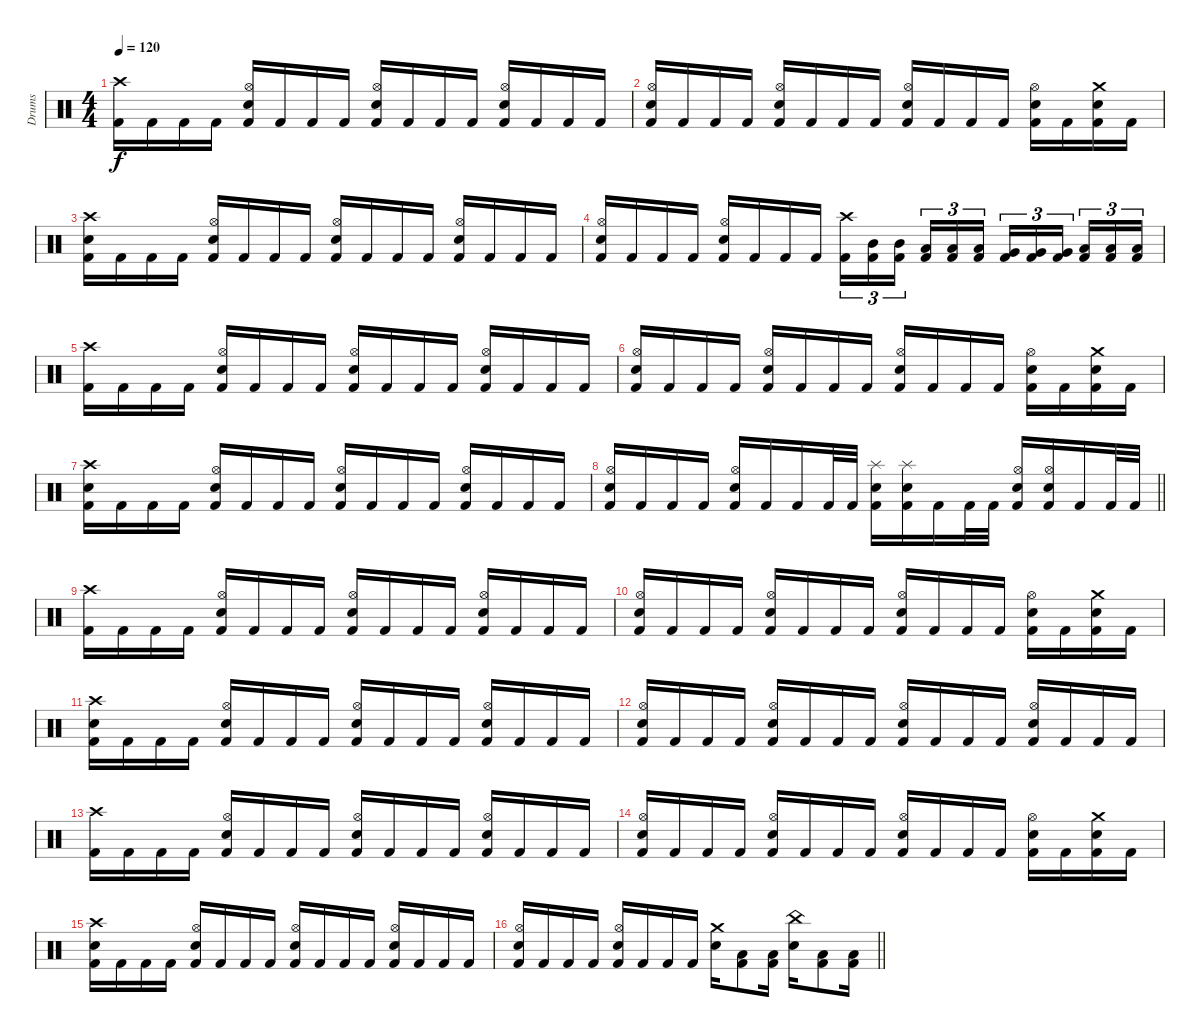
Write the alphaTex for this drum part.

\track ("Drums" "Drums") {instrument percussion}
\staff
\articulation defaults
\ts (4 4)
\section ("" "")
\tempo 120
\clef neutral
\ks c
("Crash high (hit)" "Kick (hit) 2").16{dy f} "Kick (hit) 2".16 "Kick (hit) 2".16 "Kick (hit) 2".16 ("Hi-Hat (open)" "Electric Snare (hit)" "Kick (hit) 2").16 "Kick (hit) 2".16 "Kick (hit) 2".16 "Kick (hit) 2".16 ("Hi-Hat (open)" "Electric Snare (hit)" "Kick (hit) 2").16 "Kick (hit) 2".16 "Kick (hit) 2".16 "Kick (hit) 2".16 ("Hi-Hat (open)" "Electric Snare (hit)" "Kick (hit) 2").16 "Kick (hit) 2".16 "Kick (hit) 2".16 "Kick (hit) 2".16 |
("Hi-Hat (open)" "Electric Snare (hit)" "Kick (hit) 2").16 "Kick (hit) 2".16 "Kick (hit) 2".16 "Kick (hit) 2".16 ("Hi-Hat (open)" "Electric Snare (hit)" "Kick (hit) 2").16 "Kick (hit) 2".16 "Kick (hit) 2".16 "Kick (hit) 2".16 ("Hi-Hat (open)" "Electric Snare (hit)" "Kick (hit) 2").16 "Kick (hit) 2".16 "Kick (hit) 2".16 "Kick (hit) 2".16 ("Hi-Hat (open)" "Electric Snare (hit)" "Kick (hit) 2").16 "Kick (hit) 2".16 ("Crash medium (hit)" "Electric Snare (hit)" "Kick (hit) 2").16 "Kick (hit) 2".16 |
("Crash high (hit)" "Electric Snare (hit)" "Kick (hit) 2").16 "Kick (hit) 2".16 "Kick (hit) 2".16 "Kick (hit) 2".16 ("Hi-Hat (open)" "Electric Snare (hit)" "Kick (hit) 2").16 "Kick (hit) 2".16 "Kick (hit) 2".16 "Kick (hit) 2".16 ("Hi-Hat (open)" "Electric Snare (hit)" "Kick (hit) 2").16 "Kick (hit) 2".16 "Kick (hit) 2".16 "Kick (hit) 2".16 ("Hi-Hat (open)" "Electric Snare (hit)" "Kick (hit) 2").16 "Kick (hit) 2".16 "Kick (hit) 2".16 "Kick (hit) 2".16 |
("Hi-Hat (open)" "Electric Snare (hit)" "Kick (hit) 2").16 "Kick (hit) 2".16 "Kick (hit) 2".16 "Kick (hit) 2".16 ("Hi-Hat (open)" "Electric Snare (hit)" "Kick (hit) 2").16 "Kick (hit) 2".16 "Kick (hit) 2".16 "Kick (hit) 2".16 ("Crash high (hit)" "Kick (hit) 2").16{tu (3 2)} ("Mid Tom (hit)" "Kick (hit) 2").16{tu (3 2)} ("Mid Tom (hit)" "Kick (hit) 2").16{tu (3 2) beam splitsecondary} ("Low Tom (hit)" "Kick (hit) 2").16{tu (3 2)} ("Low Tom (hit)" "Kick (hit) 2").16{tu (3 2)} ("Low Tom (hit)" "Kick (hit) 2").16{tu (3 2)} ("Very Low Tom (hit)" "Kick (hit) 2").16{tu (3 2)} ("Very Low Tom (hit)" "Kick (hit) 2").16{tu (3 2)} ("Very Low Tom (hit)" "Kick (hit) 2").16{tu (3 2) beam splitsecondary} ("Low Floor Tom (hit)" "Kick (hit) 2").16{tu (3 2)} ("Low Floor Tom (hit)" "Kick (hit) 2").16{tu (3 2)} ("Low Floor Tom (hit)" "Kick (hit) 2").16{tu (3 2)} |
("Crash high (hit)" "Kick (hit) 2").16 "Kick (hit) 2".16 "Kick (hit) 2".16 "Kick (hit) 2".16 ("Hi-Hat (open)" "Electric Snare (hit)" "Kick (hit) 2").16 "Kick (hit) 2".16 "Kick (hit) 2".16 "Kick (hit) 2".16 ("Hi-Hat (open)" "Electric Snare (hit)" "Kick (hit) 2").16 "Kick (hit) 2".16 "Kick (hit) 2".16 "Kick (hit) 2".16 ("Hi-Hat (open)" "Electric Snare (hit)" "Kick (hit) 2").16 "Kick (hit) 2".16 "Kick (hit) 2".16 "Kick (hit) 2".16 |
("Hi-Hat (open)" "Electric Snare (hit)" "Kick (hit) 2").16 "Kick (hit) 2".16 "Kick (hit) 2".16 "Kick (hit) 2".16 ("Hi-Hat (open)" "Electric Snare (hit)" "Kick (hit) 2").16 "Kick (hit) 2".16 "Kick (hit) 2".16 "Kick (hit) 2".16 ("Hi-Hat (open)" "Electric Snare (hit)" "Kick (hit) 2").16 "Kick (hit) 2".16 "Kick (hit) 2".16 "Kick (hit) 2".16 ("Hi-Hat (open)" "Electric Snare (hit)" "Kick (hit) 2").16 "Kick (hit) 2".16 ("Crash medium (hit)" "Electric Snare (hit)" "Kick (hit) 2").16 "Kick (hit) 2".16 |
("Crash high (hit)" "Electric Snare (hit)" "Kick (hit) 2").16 "Kick (hit) 2".16 "Kick (hit) 2".16 "Kick (hit) 2".16 ("Hi-Hat (open)" "Electric Snare (hit)" "Kick (hit) 2").16 "Kick (hit) 2".16 "Kick (hit) 2".16 "Kick (hit) 2".16 ("Hi-Hat (open)" "Electric Snare (hit)" "Kick (hit) 2").16 "Kick (hit) 2".16 "Kick (hit) 2".16 "Kick (hit) 2".16 ("Hi-Hat (open)" "Electric Snare (hit)" "Kick (hit) 2").16 "Kick (hit) 2".16 "Kick (hit) 2".16 "Kick (hit) 2".16 |
\barLineRight lightlight
("Hi-Hat (open)" "Electric Snare (hit)" "Kick (hit) 2").16 "Kick (hit) 2".16 "Kick (hit) 2".16 "Kick (hit) 2".16 ("Hi-Hat (open)" "Electric Snare (hit)" "Kick (hit) 2").16 "Kick (hit) 2".16 "Kick (hit) 2".16 "Kick (hit) 2".32 "Kick (hit) 2".32 ("Splash (hit)" "Electric Snare (hit)" "Kick (hit) 2").16 ("Splash (hit)" "Electric Snare (hit)" "Kick (hit) 2").16 "Kick (hit) 2".16 "Kick (hit) 2".32 "Kick (hit) 2".32 ("Hi-Hat (open)" "Electric Snare (hit)" "Kick (hit) 2").16 ("Hi-Hat (open)" "Electric Snare (hit)" "Kick (hit) 2").16 "Kick (hit) 2".16 "Kick (hit) 2".32 "Kick (hit) 2".32 |
\section ("" "")
("Crash high (hit)" "Kick (hit) 2").16 "Kick (hit) 2".16 "Kick (hit) 2".16 "Kick (hit) 2".16 ("Hi-Hat (open)" "Electric Snare (hit)" "Kick (hit) 2").16 "Kick (hit) 2".16 "Kick (hit) 2".16 "Kick (hit) 2".16 ("Hi-Hat (open)" "Electric Snare (hit)" "Kick (hit) 2").16 "Kick (hit) 2".16 "Kick (hit) 2".16 "Kick (hit) 2".16 ("Hi-Hat (open)" "Electric Snare (hit)" "Kick (hit) 2").16 "Kick (hit) 2".16 "Kick (hit) 2".16 "Kick (hit) 2".16 |
("Hi-Hat (open)" "Electric Snare (hit)" "Kick (hit) 2").16 "Kick (hit) 2".16 "Kick (hit) 2".16 "Kick (hit) 2".16 ("Hi-Hat (open)" "Electric Snare (hit)" "Kick (hit) 2").16 "Kick (hit) 2".16 "Kick (hit) 2".16 "Kick (hit) 2".16 ("Hi-Hat (open)" "Electric Snare (hit)" "Kick (hit) 2").16 "Kick (hit) 2".16 "Kick (hit) 2".16 "Kick (hit) 2".16 ("Hi-Hat (open)" "Electric Snare (hit)" "Kick (hit) 2").16 "Kick (hit) 2".16 ("Crash medium (hit)" "Electric Snare (hit)" "Kick (hit) 2").16 "Kick (hit) 2".16 |
("Crash high (hit)" "Electric Snare (hit)" "Kick (hit) 2").16 "Kick (hit) 2".16 "Kick (hit) 2".16 "Kick (hit) 2".16 ("Hi-Hat (open)" "Electric Snare (hit)" "Kick (hit) 2").16 "Kick (hit) 2".16 "Kick (hit) 2".16 "Kick (hit) 2".16 ("Hi-Hat (open)" "Electric Snare (hit)" "Kick (hit) 2").16 "Kick (hit) 2".16 "Kick (hit) 2".16 "Kick (hit) 2".16 ("Hi-Hat (open)" "Electric Snare (hit)" "Kick (hit) 2").16 "Kick (hit) 2".16 "Kick (hit) 2".16 "Kick (hit) 2".16 |
("Hi-Hat (open)" "Electric Snare (hit)" "Kick (hit) 2").16 "Kick (hit) 2".16 "Kick (hit) 2".16 "Kick (hit) 2".16 ("Hi-Hat (open)" "Electric Snare (hit)" "Kick (hit) 2").16 "Kick (hit) 2".16 "Kick (hit) 2".16 "Kick (hit) 2".16 ("Hi-Hat (open)" "Electric Snare (hit)" "Kick (hit) 2").16 "Kick (hit) 2".16 "Kick (hit) 2".16 "Kick (hit) 2".16 ("Hi-Hat (open)" "Electric Snare (hit)" "Kick (hit) 2").16 "Kick (hit) 2".16 "Kick (hit) 2".16 "Kick (hit) 2".16 |
("Crash high (hit)" "Kick (hit) 2").16 "Kick (hit) 2".16 "Kick (hit) 2".16 "Kick (hit) 2".16 ("Hi-Hat (open)" "Electric Snare (hit)" "Kick (hit) 2").16 "Kick (hit) 2".16 "Kick (hit) 2".16 "Kick (hit) 2".16 ("Hi-Hat (open)" "Electric Snare (hit)" "Kick (hit) 2").16 "Kick (hit) 2".16 "Kick (hit) 2".16 "Kick (hit) 2".16 ("Hi-Hat (open)" "Electric Snare (hit)" "Kick (hit) 2").16 "Kick (hit) 2".16 "Kick (hit) 2".16 "Kick (hit) 2".16 |
("Hi-Hat (open)" "Electric Snare (hit)" "Kick (hit) 2").16 "Kick (hit) 2".16 "Kick (hit) 2".16 "Kick (hit) 2".16 ("Hi-Hat (open)" "Electric Snare (hit)" "Kick (hit) 2").16 "Kick (hit) 2".16 "Kick (hit) 2".16 "Kick (hit) 2".16 ("Hi-Hat (open)" "Electric Snare (hit)" "Kick (hit) 2").16 "Kick (hit) 2".16 "Kick (hit) 2".16 "Kick (hit) 2".16 ("Hi-Hat (open)" "Electric Snare (hit)" "Kick (hit) 2").16 "Kick (hit) 2".16 ("Crash medium (hit)" "Electric Snare (hit)" "Kick (hit) 2").16 "Kick (hit) 2".16 |
("Crash high (hit)" "Electric Snare (hit)" "Kick (hit) 2").16 "Kick (hit) 2".16 "Kick (hit) 2".16 "Kick (hit) 2".16 ("Hi-Hat (open)" "Electric Snare (hit)" "Kick (hit) 2").16 "Kick (hit) 2".16 "Kick (hit) 2".16 "Kick (hit) 2".16 ("Hi-Hat (open)" "Electric Snare (hit)" "Kick (hit) 2").16 "Kick (hit) 2".16 "Kick (hit) 2".16 "Kick (hit) 2".16 ("Hi-Hat (open)" "Electric Snare (hit)" "Kick (hit) 2").16 "Kick (hit) 2".16 "Kick (hit) 2".16 "Kick (hit) 2".16 |
\barLineRight lightlight
("Hi-Hat (open)" "Electric Snare (hit)" "Kick (hit) 2").16 "Kick (hit) 2".16 "Kick (hit) 2".16 "Kick (hit) 2".16 ("Hi-Hat (open)" "Electric Snare (hit)" "Kick (hit) 2").16 "Kick (hit) 2".16 "Kick (hit) 2".16 "Kick (hit) 2".16 ("Crash medium (hit)" "Electric Snare (hit)").16 ("Low Floor Tom (hit)" "Kick (hit) 2").8 ("Low Floor Tom (hit)" "Kick (hit) 2").16 ("China (hit)" "Electric Snare (hit)").16 ("Low Floor Tom (hit)" "Kick (hit) 2").8 ("Low Floor Tom (hit)" "Kick (hit) 2").16
